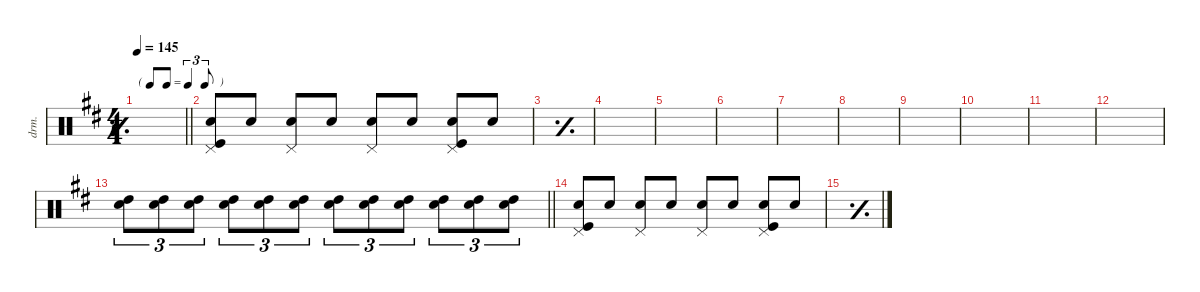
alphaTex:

\defaultSystemsLayout 4
\hideDynamics
\bracketExtendMode nobrackets
\otherSystemsTrackNameOrientation horizontal
\track ("Drumkit" "drm.") {instrument percussion}
\staff {score}
\articulation defaults
\ts (4 4)
\tf triplet8th
\tempo 145
\clef neutral
\simile simple
\barLineRight lightlight
\ks d
|
("Snare (hit) 2" "Pedal Hi-Hat (hit)" "Kick (hit)").8 "Snare (hit) 2".8 ("Snare (hit) 2" "Pedal Hi-Hat (hit)").8{dy f} "Snare (hit) 2".8{dy pp} ("Snare (hit) 2" "Pedal Hi-Hat (hit)").8 "Snare (hit) 2".8 ("Snare (hit) 2" "Pedal Hi-Hat (hit)" "Kick (hit)").8{dy f} "Snare (hit) 2".8{dy pp} |
\simile simple
|
|
|
|
|
|
|
|
|
|
\simile none
\barLineRight lightlight
("Snare (hit) 2" "High Tom (hit)").8{tu (3 2)} ("Snare (hit) 2" "High Tom (hit)").8{tu (3 2)} ("Snare (hit) 2" "High Tom (hit)").8{tu (3 2)} ("Snare (hit) 2" "High Tom (hit)").8{tu (3 2) dy p} ("Snare (hit) 2" "High Tom (hit)").8{tu (3 2)} ("Snare (hit) 2" "High Tom (hit)").8{tu (3 2) dy mp} ("Snare (hit) 2" "High Tom (hit)").8{tu (3 2)} ("Snare (hit) 2" "High Tom (hit)").8{tu (3 2) dy mf} ("Snare (hit) 2" "High Tom (hit)").8{tu (3 2) dy f} ("Snare (hit) 2" "High Tom (hit)").8{tu (3 2) dy ff} ("Snare (hit) 2" "High Tom (hit)").8{tu (3 2)} ("Snare (hit) 2" "High Tom (hit)").8{tu (3 2)} |
("Snare (hit) 2" "Pedal Hi-Hat (hit)" "Kick (hit)").8{dy pp} "Snare (hit) 2".8 ("Snare (hit) 2" "Pedal Hi-Hat (hit)").8{dy f} "Snare (hit) 2".8{dy pp} ("Snare (hit) 2" "Pedal Hi-Hat (hit)").8 "Snare (hit) 2".8 ("Snare (hit) 2" "Pedal Hi-Hat (hit)" "Kick (hit)").8{dy f} "Snare (hit) 2".8{dy pp} |
\simile simple
